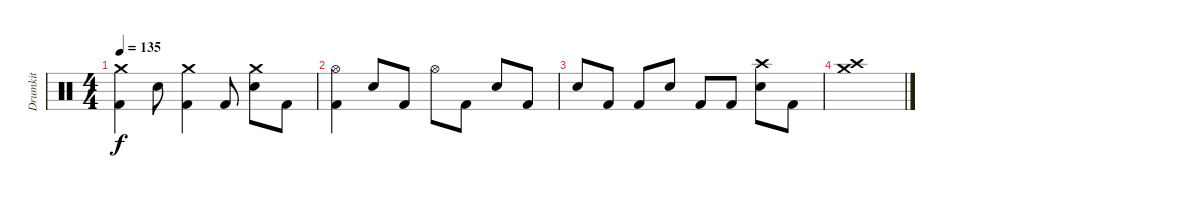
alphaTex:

\track ("Drumkit" "Drumkit") {instrument percussion}
\staff {score}
\articulation defaults
\ts (4 4)
\tempo 135
\clef neutral
\ks c
("Crash medium (hit)" "Kick (hit) 2").4{dy f} "Snare (hit) 2".8 ("Crash medium (hit)" "Kick (hit) 2").4 "Kick (hit) 2".8 ("Crash medium (hit)" "Snare (hit) 2").8 "Kick (hit) 2".8 |
("Hi-Hat (open)" "Kick (hit) 2").4 "Snare (hit) 2".8 "Kick (hit) 2".8 "Hi-Hat (open)".8 "Kick (hit) 2".8 "Snare (hit) 2".8 "Kick (hit) 2".8 |
"Snare (hit) 2".8 "Kick (hit) 2".8 "Kick (hit) 2".8 "Snare (hit) 2".8 "Kick (hit) 2".8 "Kick (hit) 2".8 ("Crash high (hit)" "Snare (hit) 2").8 "Kick (hit) 2".8 |
("Crash high (hit)" "Crash medium (hit)").1
